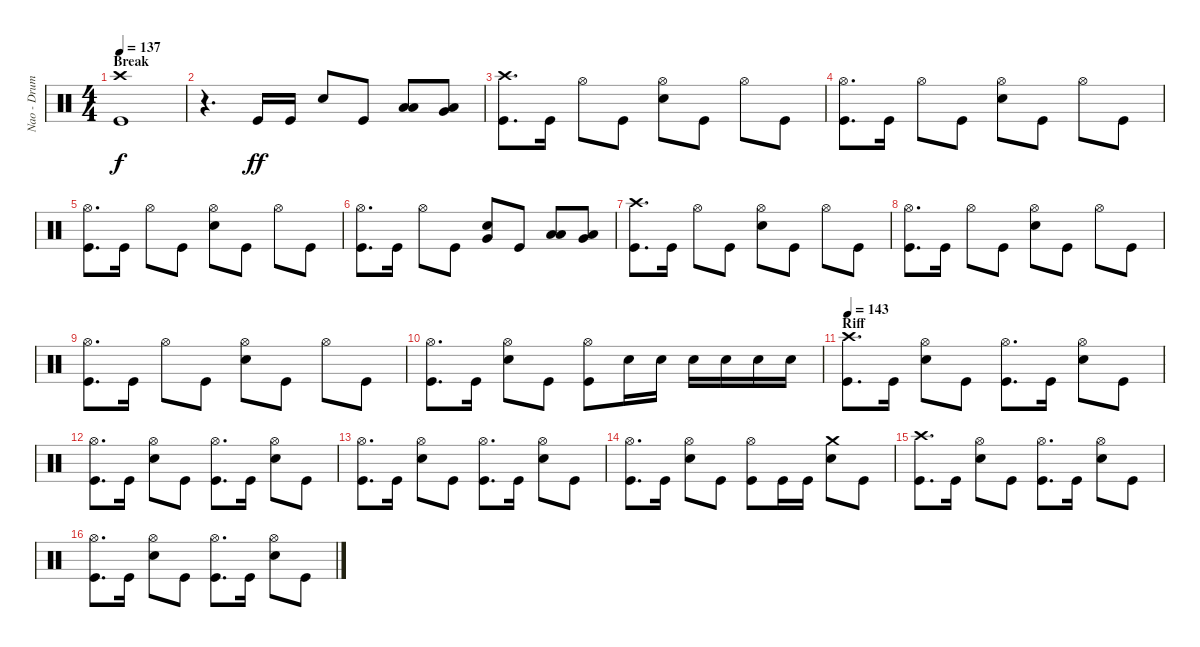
\track ("Nao - Drums" "Nao - Drum") {instrument percussion}
\staff {score}
\articulation defaults
\ts (4 4)
\section ("" "Break")
\tempo 137
\clef neutral
\ks c
("Crash high (hit)" "Kick (hit)").1{dy f} |
r.4{d} "Kick (hit)".16{dy ff} "Kick (hit)".16 "Snare (hit) 2".8 "Kick (hit)".8 ("Low Tom (hit)" "Low Floor Tom (hit)").8 ("Very Low Tom (hit)" "Low Floor Tom (hit)").8 |
("Crash high (hit)" "Kick (hit)").8{d} "Kick (hit)".16 "Hi-Hat (open)".8 "Kick (hit)".8 ("Snare (hit) 2" "Hi-Hat (open)").8 "Kick (hit)".8 "Hi-Hat (open)".8 "Kick (hit)".8 |
("Kick (hit)" "Hi-Hat (open)").8{d} "Kick (hit)".16 "Hi-Hat (open)".8 "Kick (hit)".8 ("Snare (hit) 2" "Hi-Hat (open)").8 "Kick (hit)".8 "Hi-Hat (open)".8 "Kick (hit)".8 |
("Kick (hit)" "Hi-Hat (open)").8{d} "Kick (hit)".16 "Hi-Hat (open)".8 "Kick (hit)".8 ("Snare (hit) 2" "Hi-Hat (open)").8 "Kick (hit)".8 "Hi-Hat (open)".8 "Kick (hit)".8 |
("Kick (hit)" "Hi-Hat (open)").8{d} "Kick (hit)".16 "Hi-Hat (open)".8 "Kick (hit)".8 ("Snare (hit) 2" "Very Low Tom (hit)").8 "Kick (hit)".8 ("Low Floor Tom (hit)" "Low Tom (hit)").8 ("Low Floor Tom (hit)" "Very Low Tom (hit)").8 |
("Crash high (hit)" "Kick (hit)").8{d} "Kick (hit)".16 "Hi-Hat (open)".8 "Kick (hit)".8 ("Snare (hit) 2" "Hi-Hat (open)").8 "Kick (hit)".8 "Hi-Hat (open)".8 "Kick (hit)".8 |
("Kick (hit)" "Hi-Hat (open)").8{d} "Kick (hit)".16 "Hi-Hat (open)".8 "Kick (hit)".8 ("Snare (hit) 2" "Hi-Hat (open)").8 "Kick (hit)".8 "Hi-Hat (open)".8 "Kick (hit)".8 |
("Kick (hit)" "Hi-Hat (open)").8{d} "Kick (hit)".16 "Hi-Hat (open)".8 "Kick (hit)".8 ("Snare (hit) 2" "Hi-Hat (open)").8 "Kick (hit)".8 "Hi-Hat (open)".8 "Kick (hit)".8 |
("Kick (hit)" "Hi-Hat (open)").8{d} "Kick (hit)".16 ("Hi-Hat (open)" "Snare (hit) 2").8 "Kick (hit)".8 ("Hi-Hat (open)" "Kick (hit)").8 "Snare (hit) 2".16 "Snare (hit) 2".16 "Snare (hit) 2".16 "Snare (hit) 2".16 "Snare (hit) 2".16 "Snare (hit) 2".16 |
\section ("" "Riff")
\tempo 143
("Kick (hit)" "Crash high (hit)").8{d} "Kick (hit)".16 ("Hi-Hat (open)" "Snare (hit) 2").8 "Kick (hit)".8 ("Kick (hit)" "Hi-Hat (open)").8{d} "Kick (hit)".16 ("Hi-Hat (open)" "Snare (hit) 2").8 "Kick (hit)".8 |
("Kick (hit)" "Hi-Hat (open)").8{d} "Kick (hit)".16 ("Hi-Hat (open)" "Snare (hit) 2").8 "Kick (hit)".8 ("Kick (hit)" "Hi-Hat (open)").8{d} "Kick (hit)".16 ("Hi-Hat (open)" "Snare (hit) 2").8 "Kick (hit)".8 |
("Kick (hit)" "Hi-Hat (open)").8{d} "Kick (hit)".16 ("Hi-Hat (open)" "Snare (hit) 2").8 "Kick (hit)".8 ("Kick (hit)" "Hi-Hat (open)").8{d} "Kick (hit)".16 ("Hi-Hat (open)" "Snare (hit) 2").8 "Kick (hit)".8 |
("Kick (hit)" "Hi-Hat (open)").8{d} "Kick (hit)".16 ("Hi-Hat (open)" "Snare (hit) 2").8 "Kick (hit)".8 ("Kick (hit)" "Hi-Hat (open)").8 "Kick (hit)".16 "Kick (hit)".16 ("Snare (hit) 2" "Crash medium (hit)").8 "Kick (hit)".8 |
("Kick (hit)" "Crash high (hit)").8{d} "Kick (hit)".16 ("Hi-Hat (open)" "Snare (hit) 2").8 "Kick (hit)".8 ("Kick (hit)" "Hi-Hat (open)").8{d} "Kick (hit)".16 ("Hi-Hat (open)" "Snare (hit) 2").8 "Kick (hit)".8 |
("Kick (hit)" "Hi-Hat (open)").8{d} "Kick (hit)".16 ("Hi-Hat (open)" "Snare (hit) 2").8 "Kick (hit)".8 ("Kick (hit)" "Hi-Hat (open)").8{d} "Kick (hit)".16 ("Hi-Hat (open)" "Snare (hit) 2").8 "Kick (hit)".8
